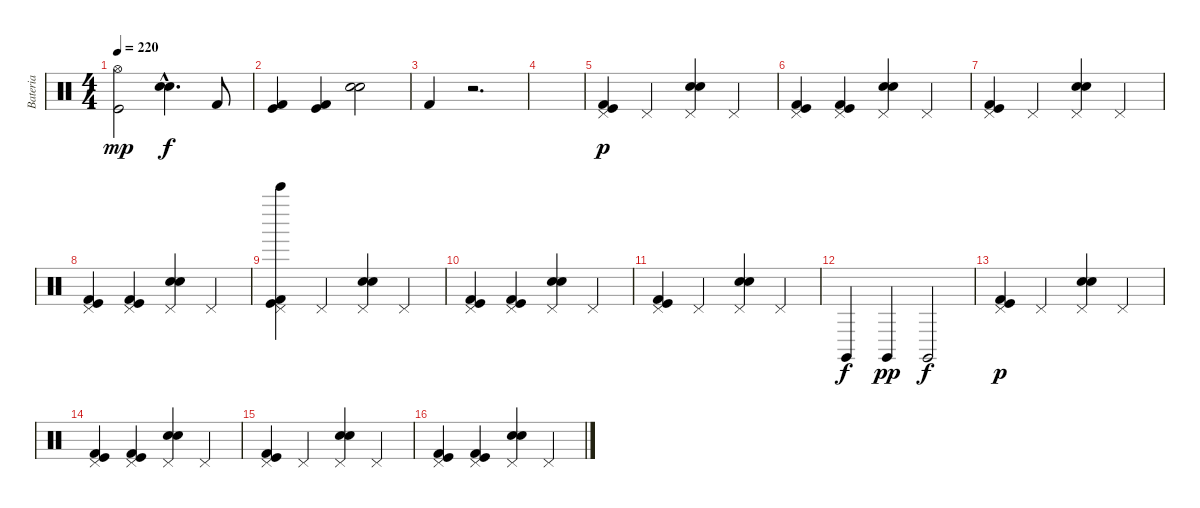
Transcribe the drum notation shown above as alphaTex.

\track ("Bateria" "Bateria") {instrument percussion}
\staff {score}
\articulation defaults
\ts (4 4)
\tempo 220
\clef neutral
\ks c
("Kick (hit)" "Hi-Hat (open)").2{dy mp} ("Electric Snare (hit)"{hac} "Snare (hit) 2"{hac}).4{d dy f} "Kick (hit) 2".8 |
("Kick (hit) 2" "Kick (hit)").4 ("Kick (hit) 2" "Kick (hit)").4 ("Electric Snare (hit)" "Snare (hit) 2").2 |
"Kick (hit) 2".4 r.2{d} |
|
("Pedal Hi-Hat (hit)" "Kick (hit) 2" "Kick (hit)").4{dy p} "Pedal Hi-Hat (hit)".4 ("Pedal Hi-Hat (hit)" "Electric Snare (hit)" "Snare (hit) 2").4 "Pedal Hi-Hat (hit)".4 |
("Pedal Hi-Hat (hit)" "Kick (hit) 2" "Kick (hit)").4 ("Pedal Hi-Hat (hit)" "Kick (hit) 2" "Kick (hit)").4 ("Pedal Hi-Hat (hit)" "Electric Snare (hit)" "Snare (hit) 2").4 "Pedal Hi-Hat (hit)".4 |
("Pedal Hi-Hat (hit)" "Kick (hit) 2" "Kick (hit)").4 "Pedal Hi-Hat (hit)".4 ("Pedal Hi-Hat (hit)" "Electric Snare (hit)" "Snare (hit) 2").4 "Pedal Hi-Hat (hit)".4 |
("Pedal Hi-Hat (hit)" "Kick (hit) 2" "Kick (hit)").4 ("Pedal Hi-Hat (hit)" "Kick (hit) 2" "Kick (hit)").4 ("Pedal Hi-Hat (hit)" "Electric Snare (hit)" "Snare (hit) 2").4 "Pedal Hi-Hat (hit)".4 |
("Bell Tree (hit)" "Pedal Hi-Hat (hit)" "Kick (hit) 2" "Kick (hit)").4 "Pedal Hi-Hat (hit)".4 ("Pedal Hi-Hat (hit)" "Electric Snare (hit)" "Snare (hit) 2").4 "Pedal Hi-Hat (hit)".4 |
("Pedal Hi-Hat (hit)" "Kick (hit) 2" "Kick (hit)").4 ("Pedal Hi-Hat (hit)" "Kick (hit) 2" "Kick (hit)").4 ("Pedal Hi-Hat (hit)" "Electric Snare (hit)" "Snare (hit) 2").4 "Pedal Hi-Hat (hit)".4 |
("Pedal Hi-Hat (hit)" "Kick (hit) 2" "Kick (hit)").4 "Pedal Hi-Hat (hit)".4 ("Pedal Hi-Hat (hit)" "Electric Snare (hit)" "Snare (hit) 2").4 "Pedal Hi-Hat (hit)".4 |
"Claves (hit)".4{dy f} "Claves (hit)".4{dy pp} "Claves (hit)".2{dy f} |
("Pedal Hi-Hat (hit)" "Kick (hit) 2" "Kick (hit)").4{dy p} "Pedal Hi-Hat (hit)".4 ("Pedal Hi-Hat (hit)" "Electric Snare (hit)" "Snare (hit) 2").4 "Pedal Hi-Hat (hit)".4 |
("Pedal Hi-Hat (hit)" "Kick (hit) 2" "Kick (hit)").4 ("Pedal Hi-Hat (hit)" "Kick (hit) 2" "Kick (hit)").4 ("Pedal Hi-Hat (hit)" "Electric Snare (hit)" "Snare (hit) 2").4 "Pedal Hi-Hat (hit)".4 |
("Pedal Hi-Hat (hit)" "Kick (hit) 2" "Kick (hit)").4 "Pedal Hi-Hat (hit)".4 ("Pedal Hi-Hat (hit)" "Electric Snare (hit)" "Snare (hit) 2").4 "Pedal Hi-Hat (hit)".4 |
("Pedal Hi-Hat (hit)" "Kick (hit) 2" "Kick (hit)").4 ("Pedal Hi-Hat (hit)" "Kick (hit) 2" "Kick (hit)").4 ("Pedal Hi-Hat (hit)" "Electric Snare (hit)" "Snare (hit) 2").4 "Pedal Hi-Hat (hit)".4
